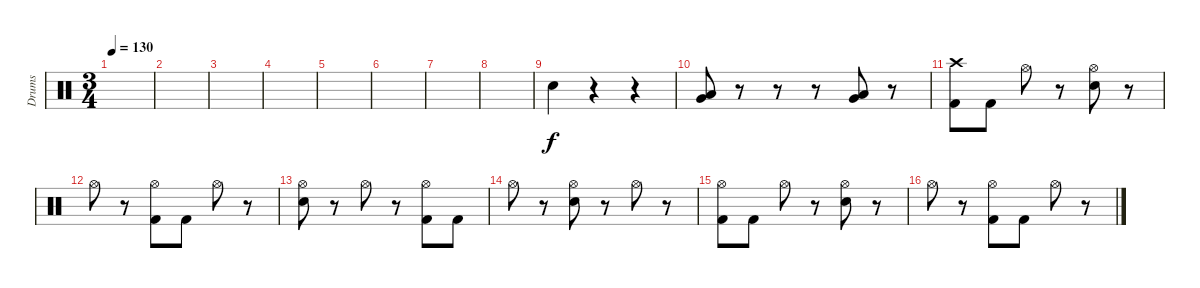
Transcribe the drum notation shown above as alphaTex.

\track ("Drums" "Drums") {instrument percussion}
\staff {score}
\articulation defaults
\ts (3 4)
\tempo 130
\clef neutral
\ks c
|
|
|
|
|
|
|
|
"Snare (hit) 2".4 r.4 r.4 |
("Very Low Tom (hit)" "Low Tom (hit)").8 r.8 r.8 r.8 ("Very Low Tom (hit)" "Low Floor Tom (hit)").8 r.8 |
("Kick (hit) 2" "Crash high (hit)").8 "Kick (hit) 2".8 "Hi-Hat (open)".8 r.8 ("Snare (hit) 2" "Hi-Hat (open)").8 r.8 |
"Hi-Hat (open)".8 r.8 ("Kick (hit) 2" "Hi-Hat (open)").8 "Kick (hit) 2".8 "Hi-Hat (open)".8 r.8 |
("Snare (hit) 2" "Hi-Hat (open)").8 r.8 "Hi-Hat (open)".8 r.8 ("Kick (hit) 2" "Hi-Hat (open)").8 "Kick (hit) 2".8 |
"Hi-Hat (open)".8 r.8 ("Snare (hit) 2" "Hi-Hat (open)").8 r.8 "Hi-Hat (open)".8 r.8 |
("Kick (hit) 2" "Hi-Hat (open)").8 "Kick (hit) 2".8 "Hi-Hat (open)".8 r.8 ("Snare (hit) 2" "Hi-Hat (open)").8 r.8 |
"Hi-Hat (open)".8 r.8 ("Kick (hit) 2" "Hi-Hat (open)").8 "Kick (hit) 2".8 "Hi-Hat (open)".8 r.8
